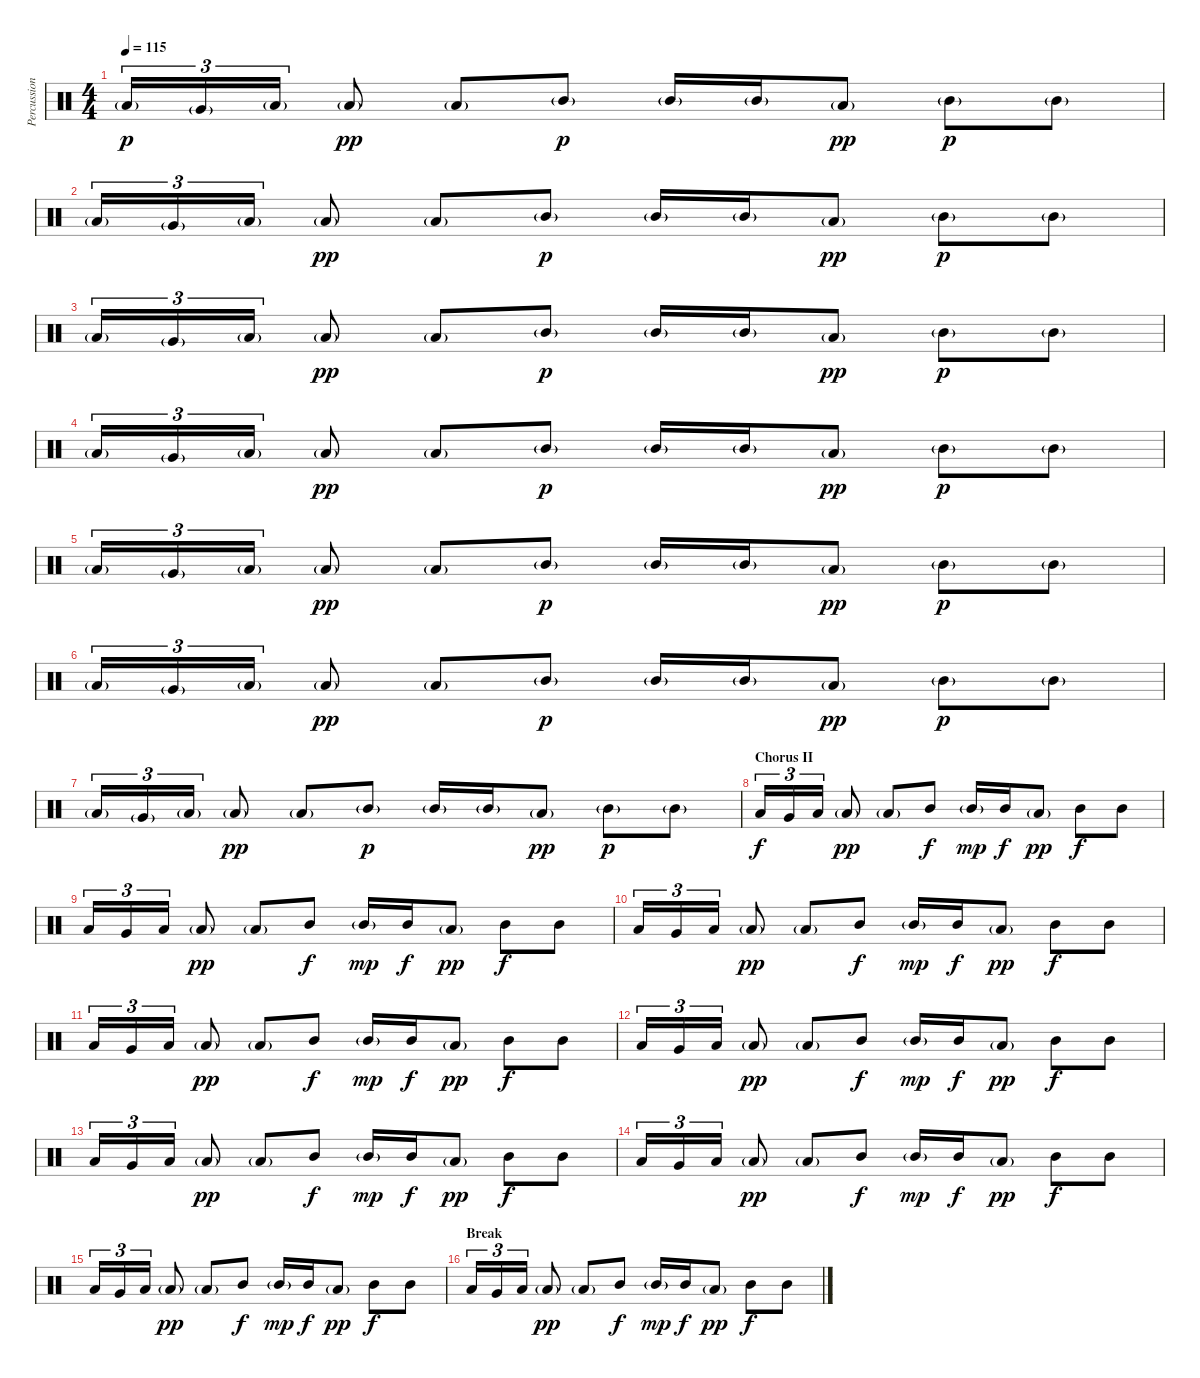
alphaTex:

\track ("Percussion - High Tom" "Percussion") {instrument percussion}
\staff {score}
\articulation defaults
\ts (4 4)
\tempo 115
\clef neutral
\ks c "Low Floor Tom (hit)"{g}.16{tu (3 2) dy p} "Very Low Tom (hit)"{g}.16{tu (3 2)} "Low Floor Tom (hit)"{g}.16{tu (3 2)} "Low Tom (hit)"{g}.8{dy pp} "Low Tom (hit)"{g}.8 "Mid Tom (hit)"{g}.8{dy p} "Mid Tom (hit)"{g}.16 "Mid Tom (hit)"{g}.16 "Low Tom (hit)"{g}.8{dy pp} "Mid Tom (hit)"{g}.8{dy p} "Mid Tom (hit)"{g}.8
|
"Low Floor Tom (hit)"{g}.16{tu (3 2)} "Very Low Tom (hit)"{g}.16{tu (3 2)} "Low Floor Tom (hit)"{g}.16{tu (3 2)} "Low Tom (hit)"{g}.8{dy pp} "Low Tom (hit)"{g}.8 "Mid Tom (hit)"{g}.8{dy p} "Mid Tom (hit)"{g}.16 "Mid Tom (hit)"{g}.16 "Low Tom (hit)"{g}.8{dy pp} "Mid Tom (hit)"{g}.8{dy p} "Mid Tom (hit)"{g}.8 |
"Low Floor Tom (hit)"{g}.16{tu (3 2)} "Very Low Tom (hit)"{g}.16{tu (3 2)} "Low Floor Tom (hit)"{g}.16{tu (3 2)} "Low Tom (hit)"{g}.8{dy pp} "Low Tom (hit)"{g}.8 "Mid Tom (hit)"{g}.8{dy p} "Mid Tom (hit)"{g}.16 "Mid Tom (hit)"{g}.16 "Low Tom (hit)"{g}.8{dy pp} "Mid Tom (hit)"{g}.8{dy p} "Mid Tom (hit)"{g}.8 |
"Low Floor Tom (hit)"{g}.16{tu (3 2)} "Very Low Tom (hit)"{g}.16{tu (3 2)} "Low Floor Tom (hit)"{g}.16{tu (3 2)} "Low Tom (hit)"{g}.8{dy pp} "Low Tom (hit)"{g}.8 "Mid Tom (hit)"{g}.8{dy p} "Mid Tom (hit)"{g}.16 "Mid Tom (hit)"{g}.16 "Low Tom (hit)"{g}.8{dy pp} "Mid Tom (hit)"{g}.8{dy p} "Mid Tom (hit)"{g}.8 |
"Low Floor Tom (hit)"{g}.16{tu (3 2)} "Very Low Tom (hit)"{g}.16{tu (3 2)} "Low Floor Tom (hit)"{g}.16{tu (3 2)} "Low Tom (hit)"{g}.8{dy pp} "Low Tom (hit)"{g}.8 "Mid Tom (hit)"{g}.8{dy p} "Mid Tom (hit)"{g}.16 "Mid Tom (hit)"{g}.16 "Low Tom (hit)"{g}.8{dy pp} "Mid Tom (hit)"{g}.8{dy p} "Mid Tom (hit)"{g}.8 |
"Low Floor Tom (hit)"{g}.16{tu (3 2)} "Very Low Tom (hit)"{g}.16{tu (3 2)} "Low Floor Tom (hit)"{g}.16{tu (3 2)} "Low Tom (hit)"{g}.8{dy pp} "Low Tom (hit)"{g}.8 "Mid Tom (hit)"{g}.8{dy p} "Mid Tom (hit)"{g}.16 "Mid Tom (hit)"{g}.16 "Low Tom (hit)"{g}.8{dy pp} "Mid Tom (hit)"{g}.8{dy p} "Mid Tom (hit)"{g}.8 |
"Low Floor Tom (hit)"{g}.16{tu (3 2)} "Very Low Tom (hit)"{g}.16{tu (3 2)} "Low Floor Tom (hit)"{g}.16{tu (3 2)} "Low Tom (hit)"{g}.8{dy pp} "Low Tom (hit)"{g}.8 "Mid Tom (hit)"{g}.8{dy p} "Mid Tom (hit)"{g}.16 "Mid Tom (hit)"{g}.16 "Low Tom (hit)"{g}.8{dy pp} "Mid Tom (hit)"{g}.8{dy p} "Mid Tom (hit)"{g}.8 |
\section ("" "Chorus II")
"Low Floor Tom (hit)".16{tu (3 2) dy f} "Very Low Tom (hit)".16{tu (3 2)} "Low Floor Tom (hit)".16{tu (3 2)} "Low Tom (hit)"{g}.8{dy pp} "Low Tom (hit)"{g}.8 "Mid Tom (hit)".8{dy f} "Mid Tom (hit)"{g}.16{dy mp} "Mid Tom (hit)".16{dy f} "Low Tom (hit)"{g}.8{dy pp} "Mid Tom (hit)".8{dy f} "Mid Tom (hit)".8 |
"Low Floor Tom (hit)".16{tu (3 2)} "Very Low Tom (hit)".16{tu (3 2)} "Low Floor Tom (hit)".16{tu (3 2)} "Low Tom (hit)"{g}.8{dy pp} "Low Tom (hit)"{g}.8 "Mid Tom (hit)".8{dy f} "Mid Tom (hit)"{g}.16{dy mp} "Mid Tom (hit)".16{dy f} "Low Tom (hit)"{g}.8{dy pp} "Mid Tom (hit)".8{dy f} "Mid Tom (hit)".8 |
"Low Floor Tom (hit)".16{tu (3 2)} "Very Low Tom (hit)".16{tu (3 2)} "Low Floor Tom (hit)".16{tu (3 2)} "Low Tom (hit)"{g}.8{dy pp} "Low Tom (hit)"{g}.8 "Mid Tom (hit)".8{dy f} "Mid Tom (hit)"{g}.16{dy mp} "Mid Tom (hit)".16{dy f} "Low Tom (hit)"{g}.8{dy pp} "Mid Tom (hit)".8{dy f} "Mid Tom (hit)".8 |
"Low Floor Tom (hit)".16{tu (3 2)} "Very Low Tom (hit)".16{tu (3 2)} "Low Floor Tom (hit)".16{tu (3 2)} "Low Tom (hit)"{g}.8{dy pp} "Low Tom (hit)"{g}.8 "Mid Tom (hit)".8{dy f} "Mid Tom (hit)"{g}.16{dy mp} "Mid Tom (hit)".16{dy f} "Low Tom (hit)"{g}.8{dy pp} "Mid Tom (hit)".8{dy f} "Mid Tom (hit)".8 |
"Low Floor Tom (hit)".16{tu (3 2)} "Very Low Tom (hit)".16{tu (3 2)} "Low Floor Tom (hit)".16{tu (3 2)} "Low Tom (hit)"{g}.8{dy pp} "Low Tom (hit)"{g}.8 "Mid Tom (hit)".8{dy f} "Mid Tom (hit)"{g}.16{dy mp} "Mid Tom (hit)".16{dy f} "Low Tom (hit)"{g}.8{dy pp} "Mid Tom (hit)".8{dy f} "Mid Tom (hit)".8 |
"Low Floor Tom (hit)".16{tu (3 2)} "Very Low Tom (hit)".16{tu (3 2)} "Low Floor Tom (hit)".16{tu (3 2)} "Low Tom (hit)"{g}.8{dy pp} "Low Tom (hit)"{g}.8 "Mid Tom (hit)".8{dy f} "Mid Tom (hit)"{g}.16{dy mp} "Mid Tom (hit)".16{dy f} "Low Tom (hit)"{g}.8{dy pp} "Mid Tom (hit)".8{dy f} "Mid Tom (hit)".8 |
"Low Floor Tom (hit)".16{tu (3 2)} "Very Low Tom (hit)".16{tu (3 2)} "Low Floor Tom (hit)".16{tu (3 2)} "Low Tom (hit)"{g}.8{dy pp} "Low Tom (hit)"{g}.8 "Mid Tom (hit)".8{dy f} "Mid Tom (hit)"{g}.16{dy mp} "Mid Tom (hit)".16{dy f} "Low Tom (hit)"{g}.8{dy pp} "Mid Tom (hit)".8{dy f} "Mid Tom (hit)".8 |
"Low Floor Tom (hit)".16{tu (3 2)} "Very Low Tom (hit)".16{tu (3 2)} "Low Floor Tom (hit)".16{tu (3 2)} "Low Tom (hit)"{g}.8{dy pp} "Low Tom (hit)"{g}.8 "Mid Tom (hit)".8{dy f} "Mid Tom (hit)"{g}.16{dy mp} "Mid Tom (hit)".16{dy f} "Low Tom (hit)"{g}.8{dy pp} "Mid Tom (hit)".8{dy f} "Mid Tom (hit)".8 |
\section ("" "Break")
"Low Floor Tom (hit)".16{tu (3 2)} "Very Low Tom (hit)".16{tu (3 2)} "Low Floor Tom (hit)".16{tu (3 2)} "Low Tom (hit)"{g}.8{dy pp} "Low Tom (hit)"{g}.8 "Mid Tom (hit)".8{dy f} "Mid Tom (hit)"{g}.16{dy mp} "Mid Tom (hit)".16{dy f} "Low Tom (hit)"{g}.8{dy pp} "Mid Tom (hit)".8{dy f} "Mid Tom (hit)".8
